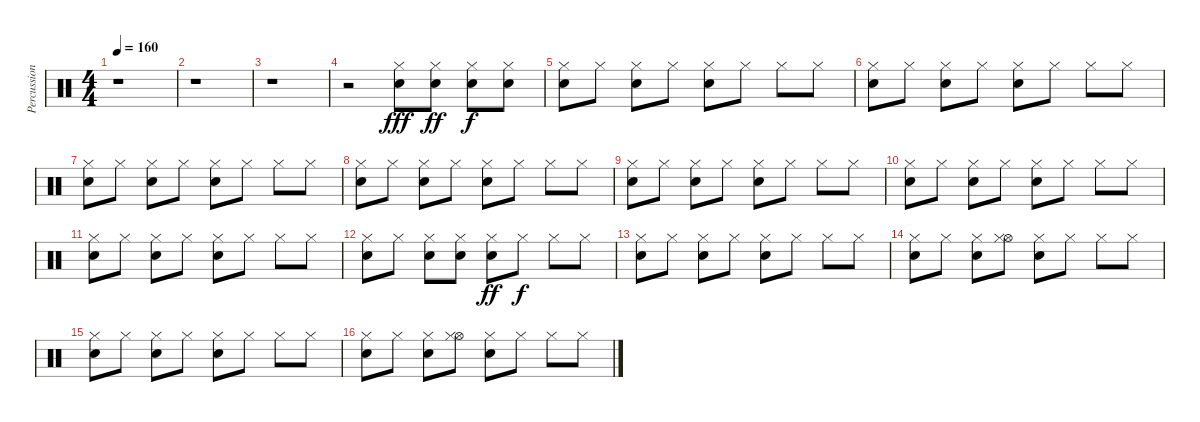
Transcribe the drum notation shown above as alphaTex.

\track ("Percussions" "Percussion") {instrument percussion}
\staff {score}
\articulation defaults
\ts (4 4)
\tempo 160
\clef neutral
\ks c
r.1{dy f} |
r.1 |
r.1 |
r.2 ("Snare (hit) 2" "Hi-Hat (closed)").8{dy fff} ("Electric Snare (hit)" "Hi-Hat (closed)").8{dy ff} ("Electric Snare (hit)" "Hi-Hat (closed)").8{dy f} ("Electric Snare (hit)" "Hi-Hat (closed)").8 |
("Electric Snare (hit)" "Hi-Hat (closed)").8 "Hi-Hat (closed)".8 ("Electric Snare (hit)" "Hi-Hat (closed)").8 "Hi-Hat (closed)".8 ("Snare (hit) 2" "Hi-Hat (closed)").8 "Hi-Hat (closed)".8 "Hi-Hat (closed)".8 "Hi-Hat (closed)".8 |
("Electric Snare (hit)" "Hi-Hat (closed)").8 "Hi-Hat (closed)".8 ("Electric Snare (hit)" "Hi-Hat (closed)").8 "Hi-Hat (closed)".8 ("Snare (hit) 2" "Hi-Hat (closed)").8 "Hi-Hat (closed)".8 "Hi-Hat (closed)".8 "Hi-Hat (closed)".8 |
("Electric Snare (hit)" "Hi-Hat (closed)").8 "Hi-Hat (closed)".8 ("Electric Snare (hit)" "Hi-Hat (closed)").8 "Hi-Hat (closed)".8 ("Snare (hit) 2" "Hi-Hat (closed)").8 "Hi-Hat (closed)".8 "Hi-Hat (closed)".8 "Hi-Hat (closed)".8 |
("Electric Snare (hit)" "Hi-Hat (closed)").8 "Hi-Hat (closed)".8 ("Electric Snare (hit)" "Hi-Hat (closed)").8 "Hi-Hat (closed)".8 ("Snare (hit) 2" "Hi-Hat (closed)").8 "Hi-Hat (closed)".8 "Hi-Hat (closed)".8 "Hi-Hat (closed)".8 |
("Electric Snare (hit)" "Hi-Hat (closed)").8 "Hi-Hat (closed)".8 ("Electric Snare (hit)" "Hi-Hat (closed)").8 "Hi-Hat (closed)".8 ("Snare (hit) 2" "Hi-Hat (closed)").8 "Hi-Hat (closed)".8 "Hi-Hat (closed)".8 "Hi-Hat (closed)".8 |
("Electric Snare (hit)" "Hi-Hat (closed)").8 "Hi-Hat (closed)".8 ("Electric Snare (hit)" "Hi-Hat (closed)").8 "Hi-Hat (closed)".8 ("Snare (hit) 2" "Hi-Hat (closed)").8 "Hi-Hat (closed)".8 "Hi-Hat (closed)".8 "Hi-Hat (closed)".8 |
("Electric Snare (hit)" "Hi-Hat (closed)").8 "Hi-Hat (closed)".8 ("Electric Snare (hit)" "Hi-Hat (closed)").8 "Hi-Hat (closed)".8 ("Snare (hit) 2" "Hi-Hat (closed)").8 "Hi-Hat (closed)".8 "Hi-Hat (closed)".8 "Hi-Hat (closed)".8 |
("Snare (hit) 2" "Hi-Hat (closed)").8 "Hi-Hat (closed)".8 ("Electric Snare (hit)" "Hi-Hat (closed)").8 ("Electric Snare (hit)" "Hi-Hat (closed)").8 ("Snare (hit) 2" "Hi-Hat (closed)").8{dy ff} "Hi-Hat (closed)".8{dy f} "Hi-Hat (closed)".8 "Hi-Hat (closed)".8 |
("Electric Snare (hit)" "Hi-Hat (closed)").8 "Hi-Hat (closed)".8 ("Electric Snare (hit)" "Hi-Hat (closed)").8 "Hi-Hat (closed)".8 ("Snare (hit) 2" "Hi-Hat (closed)").8 "Hi-Hat (closed)".8 "Hi-Hat (closed)".8 "Hi-Hat (closed)".8 |
("Electric Snare (hit)" "Hi-Hat (closed)").8 "Hi-Hat (closed)".8 ("Electric Snare (hit)" "Hi-Hat (closed)").8 ("Hi-Hat (open)" "Hi-Hat (closed)").8 ("Snare (hit) 2" "Hi-Hat (closed)").8 "Hi-Hat (closed)".8 "Hi-Hat (closed)".8 "Hi-Hat (closed)".8 |
("Electric Snare (hit)" "Hi-Hat (closed)").8 "Hi-Hat (closed)".8 ("Electric Snare (hit)" "Hi-Hat (closed)").8 "Hi-Hat (closed)".8 ("Snare (hit) 2" "Hi-Hat (closed)").8 "Hi-Hat (closed)".8 "Hi-Hat (closed)".8 "Hi-Hat (closed)".8 |
("Electric Snare (hit)" "Hi-Hat (closed)").8 "Hi-Hat (closed)".8 ("Electric Snare (hit)" "Hi-Hat (closed)").8 ("Hi-Hat (open)" "Hi-Hat (closed)").8 ("Snare (hit) 2" "Hi-Hat (closed)").8 "Hi-Hat (closed)".8 "Hi-Hat (closed)".8 "Hi-Hat (closed)".8
